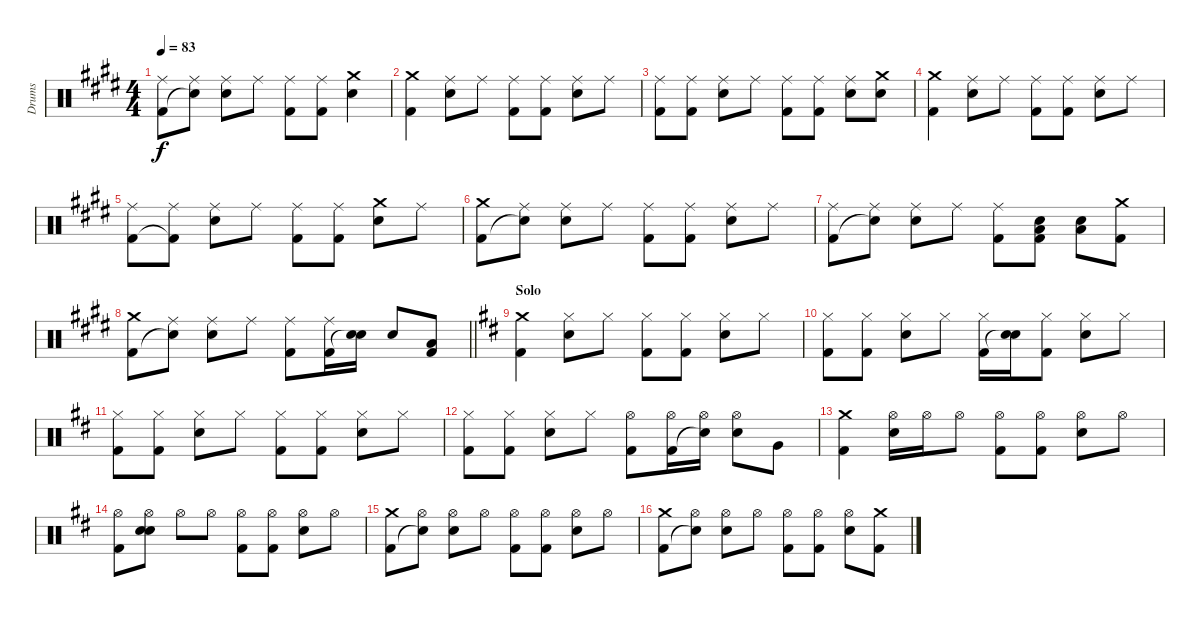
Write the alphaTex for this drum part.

\track ("Drums" "Drums") {instrument percussion}
\staff {score}
\articulation defaults
\ts (4 4)
\tempo 83
\clef neutral
\ks e
("Ride (middle)" "Kick (hit) 2").8{dy f} ("Ride (middle)" "Snare (hit)"{t}).8 ("Ride (middle)" "Electric Snare (hit)").8 "Ride (middle)".8 ("Ride (middle)" "Kick (hit) 2").8 ("Ride (middle)" "Kick (hit) 2").8 ("Crash medium (hit)" "Electric Snare (hit)").4 |
("Crash medium (hit)" "Kick (hit) 2").4 ("Ride (middle)" "Electric Snare (hit)").8 "Ride (middle)".8 ("Ride (middle)" "Kick (hit) 2").8 ("Ride (middle)" "Kick (hit) 2").8 ("Ride (middle)" "Electric Snare (hit)").8 "Ride (middle)".8 |
("Ride (middle)" "Kick (hit) 2").8 ("Ride (middle)" "Kick (hit) 2").8 ("Ride (middle)" "Electric Snare (hit)").8 "Ride (middle)".8 ("Ride (middle)" "Kick (hit) 2").8 ("Ride (middle)" "Kick (hit) 2").8 ("Ride (middle)" "Electric Snare (hit)").8 ("Crash medium (hit)" "Electric Snare (hit)").8 |
("Crash medium (hit)" "Kick (hit) 2").4 ("Ride (middle)" "Electric Snare (hit)").8 "Ride (middle)".8 ("Ride (middle)" "Kick (hit) 2").8 ("Ride (middle)" "Kick (hit) 2").8 ("Ride (middle)" "Electric Snare (hit)").8 "Ride (middle)".8 |
("Ride (middle)" "Kick (hit) 2").8 ("Ride (middle)" "Kick (hit) 2"{t}).8 ("Ride (middle)" "Electric Snare (hit)").8 "Ride (middle)".8 ("Ride (middle)" "Kick (hit) 2").8 ("Ride (middle)" "Kick (hit) 2").8 ("Crash medium (hit)" "Electric Snare (hit)").8 "Ride (middle)".8 |
("Crash medium (hit)" "Kick (hit) 2").8 ("Ride (middle)" "Snare (hit)"{t}).8 ("Ride (middle)" "Electric Snare (hit)").8 "Ride (middle)".8 ("Ride (middle)" "Kick (hit) 2").8 ("Ride (middle)" "Kick (hit) 2").8 ("Ride (middle)" "Electric Snare (hit)").8 "Ride (middle)".8 |
("Ride (middle)" "Kick (hit) 2").8 ("Ride (middle)" "Snare (hit)"{t}).8 ("Ride (middle)" "Electric Snare (hit)").8 "Ride (middle)".8 ("Ride (middle)" "Kick (hit) 2").8 ("Electric Snare (hit)" "Low Tom (hit)" "Kick (hit) 2").8 ("Electric Snare (hit)" "Low Tom (hit)").8 ("Crash medium (hit)" "Kick (hit) 2").8 |
\barLineRight lightlight
("Crash medium (hit)" "Kick (hit) 2").8 ("Ride (middle)" "Snare (hit)"{t}).8 ("Ride (middle)" "Electric Snare (hit)").8 "Ride (middle)".8 ("Ride (middle)" "Kick (hit) 2").8 ("Ride (middle)" "Kick (hit) 2").16 ("Electric Snare (hit)" "Snare (hit)"{t}).16 "Electric Snare (hit)".8 ("Low Floor Tom (hit)" "Kick (hit) 2").8 |
\section ("" "Solo")
\ks d
("Crash medium (hit)" "Kick (hit) 2").4 ("Hi-Hat (closed)" "Electric Snare (hit)").8 "Hi-Hat (closed)".8 ("Hi-Hat (closed)" "Kick (hit) 2").8 ("Hi-Hat (closed)" "Kick (hit) 2").8 ("Hi-Hat (closed)" "Electric Snare (hit)").8 "Hi-Hat (closed)".8 |
("Hi-Hat (closed)" "Kick (hit) 2").8 ("Hi-Hat (closed)" "Kick (hit) 2").8 ("Hi-Hat (closed)" "Electric Snare (hit)").8 "Hi-Hat (closed)".8 ("Hi-Hat (closed)" "Kick (hit) 2").16 ("Electric Snare (hit)" "Snare (hit)"{t}).16 ("Hi-Hat (closed)" "Kick (hit) 2").8 ("Hi-Hat (closed)" "Electric Snare (hit)").8 "Hi-Hat (closed)".8 |
("Hi-Hat (closed)" "Kick (hit) 2").8 ("Hi-Hat (closed)" "Kick (hit) 2").8 ("Hi-Hat (closed)" "Electric Snare (hit)").8 "Hi-Hat (closed)".8 ("Hi-Hat (closed)" "Kick (hit) 2").8 ("Hi-Hat (closed)" "Kick (hit) 2").8 ("Hi-Hat (closed)" "Electric Snare (hit)").8 "Hi-Hat (closed)".8 |
("Hi-Hat (closed)" "Kick (hit) 2").8 ("Hi-Hat (closed)" "Kick (hit) 2").8 ("Hi-Hat (closed)" "Electric Snare (hit)").8 "Hi-Hat (closed)".8 ("Hi-Hat (open)" "Kick (hit) 2").8 ("Hi-Hat (open)" "Kick (hit) 2").16 ("Hi-Hat (open)" "Snare (hit)"{t}).16 ("Hi-Hat (open)" "Electric Snare (hit)").8 "Very Low Tom (hit)".8 |
("Crash medium (hit)" "Kick (hit) 2").4 ("Hi-Hat (open)" "Electric Snare (hit)").16 "Hi-Hat (open)".16 "Hi-Hat (open)".8 ("Hi-Hat (open)" "Kick (hit) 2").8 ("Hi-Hat (open)" "Kick (hit) 2").8 ("Hi-Hat (open)" "Electric Snare (hit)").8 "Hi-Hat (open)".8 |
("Hi-Hat (open)" "Kick (hit) 2").8 ("Hi-Hat (open)" "Electric Snare (hit)" "Snare (hit)").8 "Hi-Hat (open)".8 "Hi-Hat (open)".8 ("Hi-Hat (open)" "Kick (hit) 2").8 ("Hi-Hat (open)" "Kick (hit) 2").8 ("Hi-Hat (open)" "Electric Snare (hit)").8 "Hi-Hat (open)".8 |
("Crash medium (hit)" "Kick (hit) 2").8 ("Hi-Hat (open)" "Snare (hit)"{t}).8 ("Hi-Hat (open)" "Electric Snare (hit)").8 "Hi-Hat (open)".8 ("Hi-Hat (open)" "Kick (hit) 2").8 ("Hi-Hat (open)" "Kick (hit) 2").8 ("Hi-Hat (open)" "Electric Snare (hit)").8 "Hi-Hat (open)".8 |
("Crash medium (hit)" "Kick (hit) 2").8 ("Hi-Hat (open)" "Snare (hit)"{t}).8 ("Hi-Hat (open)" "Electric Snare (hit)").8 "Hi-Hat (open)".8 ("Hi-Hat (open)" "Kick (hit) 2").8 ("Hi-Hat (open)" "Kick (hit) 2").8 ("Hi-Hat (open)" "Electric Snare (hit)").8 ("Crash medium (hit)" "Kick (hit) 2").8
